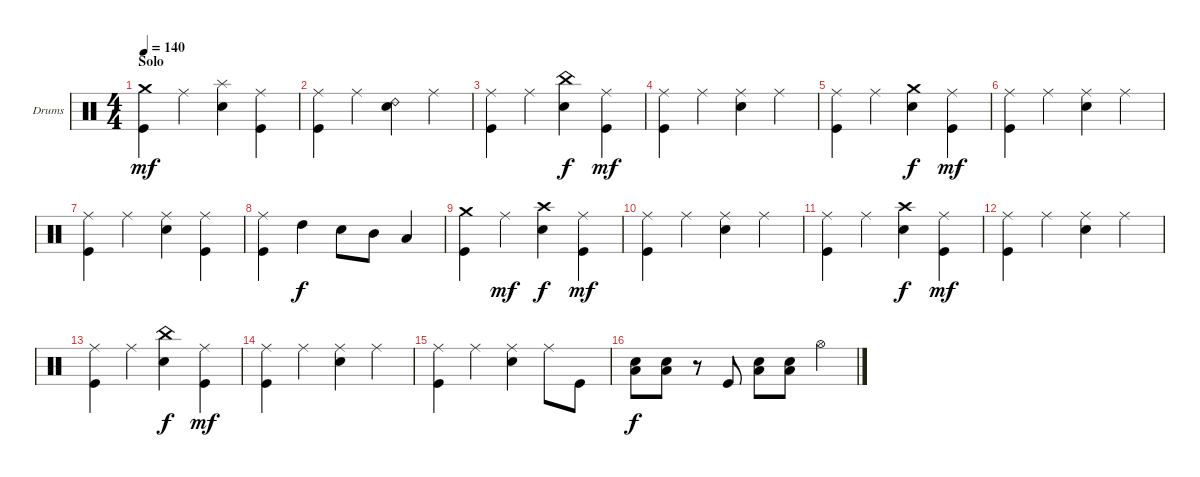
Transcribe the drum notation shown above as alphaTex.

\bracketExtendMode groupsimilarinstruments
\firstSystemTrackNameOrientation horizontal
\otherSystemsTrackNameOrientation horizontal
\track ("Drumkit (Ray Cooper)" "Drums") {instrument percussion}
\staff {score}
\articulation defaults
\ts (4 4)
\section ("" "Solo")
\tempo 140
\clef neutral
\scale
1.07945
\ks c
("Kick (hit)" "Crash medium (hit)").4{dy mf} "Ride (middle)".4 ("Snare (hit) 2" "Splash (hit)").4 ("Kick (hit)" "Ride (middle)").4 |
\scale
0.973518 ("Kick (hit)" "Ride (middle)").4 "Ride (middle)".4 ("Snare (hit) 2" "Ride (bell) 2").4 "Ride (middle)".4 |
\scale
0.973518 ("Kick (hit)" "Ride (middle)").4 "Ride (middle)".4 ("Snare (hit) 2" "China (hit)").4{dy f} ("Kick (hit)" "Ride (middle)").4{dy mf} |
\scale
0.973518 ("Kick (hit)" "Ride (middle)").4 "Ride (middle)".4 ("Snare (hit) 2" "Ride (middle)").4 "Ride (middle)".4 |
\scale
1.07945 ("Kick (hit)" "Ride (middle)").4 "Ride (middle)".4 ("Snare (hit) 2" "Crash medium (hit)").4{dy f} ("Kick (hit)" "Ride (middle)").4{dy mf} |
\scale
0.973518 ("Kick (hit)" "Ride (middle)").4 "Ride (middle)".4 ("Snare (hit) 2" "Ride (middle)").4 "Ride (middle)".4 |
\scale
0.973518 ("Kick (hit)" "Ride (middle)").4 "Ride (middle)".4 ("Snare (hit) 2" "Ride (middle)").4 ("Kick (hit)" "Ride (middle)").4 |
\scale
0.973518 ("Kick (hit)" "Ride (middle)").4 "High Tom (hit)".4{dy f} "Snare (hit) 2".8 "Mid Tom (hit)".8 "Low Tom (hit)".4 |
\scale
1.07945 ("Kick (hit)" "Crash medium (hit)").4 "Ride (middle)".4{dy mf} ("Snare (hit) 2" "Crash high (hit)").4{dy f} ("Kick (hit)" "Ride (middle)").4{dy mf} |
\scale
0.973518 ("Kick (hit)" "Ride (middle)").4 "Ride (middle)".4 ("Snare (hit) 2" "Ride (middle)").4 "Ride (middle)".4 |
\scale
0.973518 ("Kick (hit)" "Ride (middle)").4 "Ride (middle)".4 ("Snare (hit) 2" "Crash high (hit)").4{dy f} ("Kick (hit)" "Ride (middle)").4{dy mf} |
\scale
0.973518 ("Kick (hit)" "Ride (middle)").4 "Ride (middle)".4 ("Snare (hit) 2" "Ride (middle)").4 "Ride (middle)".4 |
\scale
1.07945 ("Kick (hit)" "Ride (middle)").4 "Ride (middle)".4 ("Snare (hit) 2" "China (hit)").4{dy f} ("Kick (hit)" "Ride (middle)").4{dy mf} |
\scale
0.973518 ("Kick (hit)" "Ride (middle)").4 "Ride (middle)".4 ("Snare (hit) 2" "Ride (middle)").4 "Ride (middle)".4 |
\scale
0.973518 ("Kick (hit)" "Ride (middle)").4 "Ride (middle)".4 ("Snare (hit) 2" "Ride (middle)").4 "Ride (middle)".8 "Kick (hit)".8 |
\scale
0.973518 ("Low Tom (hit)" "Snare (hit) 2").8{dy f} ("Snare (hit) 2" "Low Tom (hit)").8 r.8 "Kick (hit)".8 ("Snare (hit) 2" "Low Tom (hit)").8 ("Snare (hit) 2" "Low Tom (hit)").8 "Hi-Hat (open)".4
